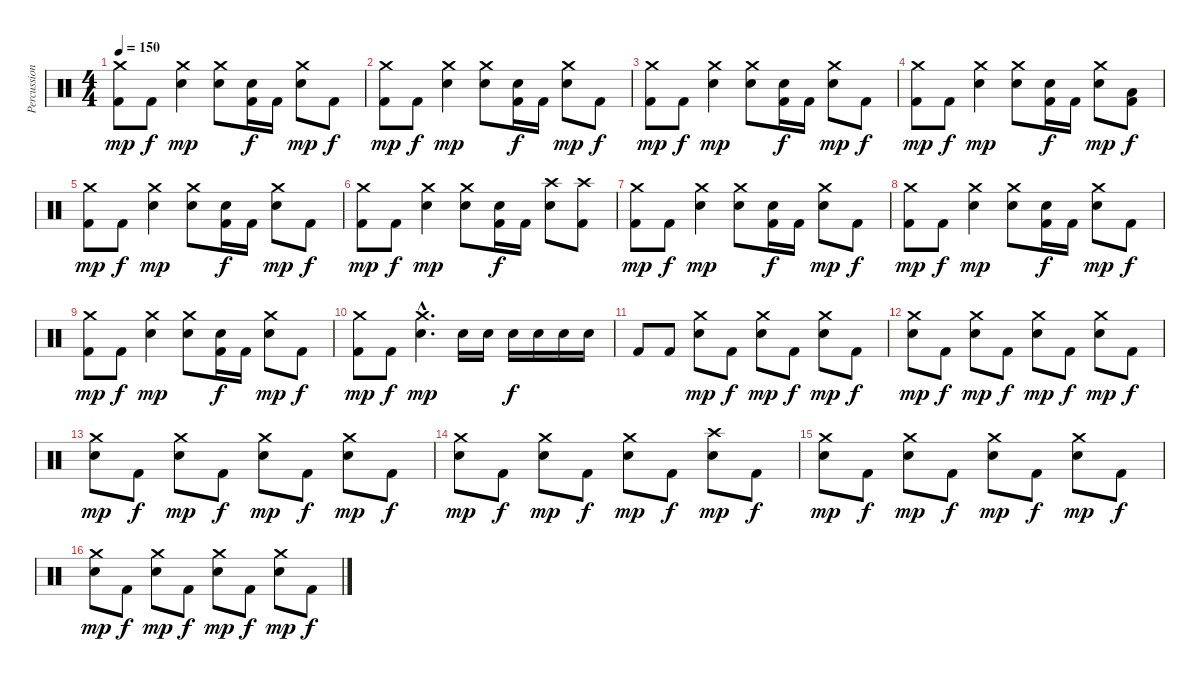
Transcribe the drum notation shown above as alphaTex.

\track ("Percussions" "Percussion") {instrument percussion}
\staff {score}
\articulation defaults
\ts (4 4)
\tempo 150
\clef neutral
\ks c
("Kick (hit) 2" "Crash medium (hit)").8{dy mp} "Kick (hit) 2".8{dy f} ("Electric Snare (hit)" "Crash medium (hit)").4{dy mp} ("Electric Snare (hit)" "Crash medium (hit)").8 ("Kick (hit) 2" "Electric Snare (hit)").16{dy f} "Kick (hit) 2".16 ("Electric Snare (hit)" "Crash medium (hit)").8{dy mp} "Kick (hit) 2".8{dy f} |
("Kick (hit) 2" "Crash medium (hit)").8{dy mp} "Kick (hit) 2".8{dy f} ("Electric Snare (hit)" "Crash medium (hit)").4{dy mp} ("Electric Snare (hit)" "Crash medium (hit)").8 ("Kick (hit) 2" "Electric Snare (hit)").16{dy f} "Kick (hit) 2".16 ("Electric Snare (hit)" "Crash medium (hit)").8{dy mp} "Kick (hit) 2".8{dy f} |
("Kick (hit) 2" "Crash medium (hit)").8{dy mp} "Kick (hit) 2".8{dy f} ("Electric Snare (hit)" "Crash medium (hit)").4{dy mp} ("Electric Snare (hit)" "Crash medium (hit)").8 ("Kick (hit) 2" "Electric Snare (hit)").16{dy f} "Kick (hit) 2".16 ("Electric Snare (hit)" "Crash medium (hit)").8{dy mp} "Kick (hit) 2".8{dy f} |
("Kick (hit) 2" "Crash medium (hit)").8{dy mp} "Kick (hit) 2".8{dy f} ("Electric Snare (hit)" "Crash medium (hit)").4{dy mp} ("Electric Snare (hit)" "Crash medium (hit)").8 ("Kick (hit) 2" "Electric Snare (hit)").16{dy f} "Kick (hit) 2".16 ("Electric Snare (hit)" "Crash medium (hit)").8{dy mp} ("Low Floor Tom (hit)" "Kick (hit) 2").8{dy f} |
("Kick (hit) 2" "Crash medium (hit)").8{dy mp} "Kick (hit) 2".8{dy f} ("Electric Snare (hit)" "Crash medium (hit)").4{dy mp} ("Electric Snare (hit)" "Crash medium (hit)").8 ("Kick (hit) 2" "Electric Snare (hit)").16{dy f} "Kick (hit) 2".16 ("Electric Snare (hit)" "Crash medium (hit)").8{dy mp} "Kick (hit) 2".8{dy f} |
("Kick (hit) 2" "Crash medium (hit)").8{dy mp} "Kick (hit) 2".8{dy f} ("Electric Snare (hit)" "Crash medium (hit)").4{dy mp} ("Electric Snare (hit)" "Crash medium (hit)").8 ("Kick (hit) 2" "Electric Snare (hit)").16{dy f} "Kick (hit) 2".16 ("Electric Snare (hit)" "Crash high (hit)").8 ("Kick (hit) 2" "Crash high (hit)").8 |
("Kick (hit) 2" "Crash medium (hit)").8{dy mp} "Kick (hit) 2".8{dy f} ("Electric Snare (hit)" "Crash medium (hit)").4{dy mp} ("Electric Snare (hit)" "Crash medium (hit)").8 ("Kick (hit) 2" "Electric Snare (hit)").16{dy f} "Kick (hit) 2".16 ("Electric Snare (hit)" "Crash medium (hit)").8{dy mp} "Kick (hit) 2".8{dy f} |
("Kick (hit) 2" "Crash medium (hit)").8{dy mp} "Kick (hit) 2".8{dy f} ("Electric Snare (hit)" "Crash medium (hit)").4{dy mp} ("Electric Snare (hit)" "Crash medium (hit)").8 ("Kick (hit) 2" "Electric Snare (hit)").16{dy f} "Kick (hit) 2".16 ("Electric Snare (hit)" "Crash medium (hit)").8{dy mp} "Kick (hit) 2".8{dy f} |
("Kick (hit) 2" "Crash medium (hit)").8{dy mp} "Kick (hit) 2".8{dy f} ("Electric Snare (hit)" "Crash medium (hit)").4{dy mp} ("Electric Snare (hit)" "Crash medium (hit)").8 ("Kick (hit) 2" "Electric Snare (hit)").16{dy f} "Kick (hit) 2".16 ("Electric Snare (hit)" "Crash medium (hit)").8{dy mp} "Kick (hit) 2".8{dy f} |
("Kick (hit) 2" "Crash medium (hit)").8{dy mp} "Kick (hit) 2".8{dy f} ("Electric Snare (hit)"{hac} "Crash medium (hit)"{hac}).4{d dy mp} "Electric Snare (hit)".16 "Electric Snare (hit)".16 "Electric Snare (hit)".16{dy f} "Electric Snare (hit)".16 "Electric Snare (hit)".16 "Electric Snare (hit)".16 |
"Kick (hit) 2".8 "Kick (hit) 2".8 ("Electric Snare (hit)" "Crash medium (hit)").8{dy mp} "Kick (hit) 2".8{dy f} ("Electric Snare (hit)" "Crash medium (hit)").8{dy mp} "Kick (hit) 2".8{dy f} ("Electric Snare (hit)" "Crash medium (hit)").8{dy mp} "Kick (hit) 2".8{dy f} |
("Electric Snare (hit)" "Crash medium (hit)").8{dy mp} "Kick (hit) 2".8{dy f} ("Electric Snare (hit)" "Crash medium (hit)").8{dy mp} "Kick (hit) 2".8{dy f} ("Electric Snare (hit)" "Crash medium (hit)").8{dy mp} "Kick (hit) 2".8{dy f} ("Electric Snare (hit)" "Crash medium (hit)").8{dy mp} "Kick (hit) 2".8{dy f} |
("Electric Snare (hit)" "Crash medium (hit)").8{dy mp} "Kick (hit) 2".8{dy f} ("Electric Snare (hit)" "Crash medium (hit)").8{dy mp} "Kick (hit) 2".8{dy f} ("Electric Snare (hit)" "Crash medium (hit)").8{dy mp} "Kick (hit) 2".8{dy f} ("Electric Snare (hit)" "Crash medium (hit)").8{dy mp} "Kick (hit) 2".8{dy f} |
("Electric Snare (hit)" "Crash medium (hit)").8{dy mp} "Kick (hit) 2".8{dy f} ("Electric Snare (hit)" "Crash medium (hit)").8{dy mp} "Kick (hit) 2".8{dy f} ("Electric Snare (hit)" "Crash medium (hit)").8{dy mp} "Kick (hit) 2".8{dy f} ("Electric Snare (hit)" "Crash high (hit)").8{dy mp} "Kick (hit) 2".8{dy f} |
("Electric Snare (hit)" "Crash medium (hit)").8{dy mp} "Kick (hit) 2".8{dy f} ("Electric Snare (hit)" "Crash medium (hit)").8{dy mp} "Kick (hit) 2".8{dy f} ("Electric Snare (hit)" "Crash medium (hit)").8{dy mp} "Kick (hit) 2".8{dy f} ("Electric Snare (hit)" "Crash medium (hit)").8{dy mp} "Kick (hit) 2".8{dy f} |
("Electric Snare (hit)" "Crash medium (hit)").8{dy mp} "Kick (hit) 2".8{dy f} ("Electric Snare (hit)" "Crash medium (hit)").8{dy mp} "Kick (hit) 2".8{dy f} ("Electric Snare (hit)" "Crash medium (hit)").8{dy mp} "Kick (hit) 2".8{dy f} ("Electric Snare (hit)" "Crash medium (hit)").8{dy mp} "Kick (hit) 2".8{dy f}
